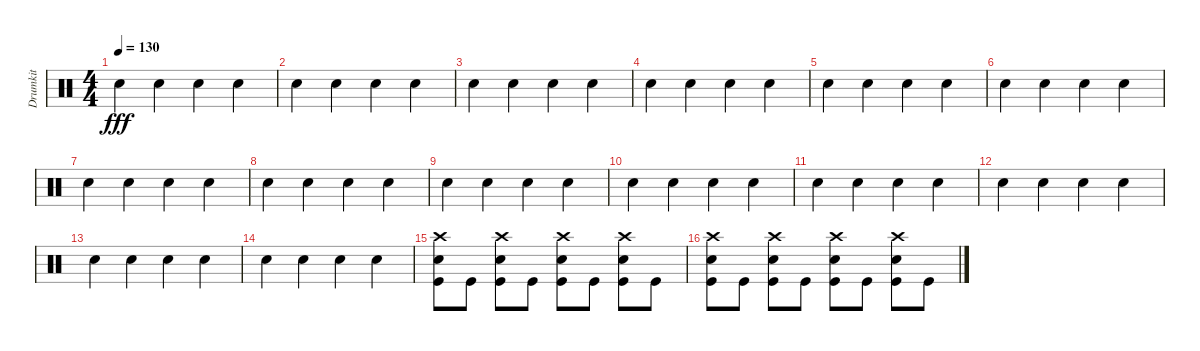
\track ("Drumkit" "Drumkit") {instrument percussion}
\staff {score}
\articulation defaults
\ts (4 4)
\tempo 130
\clef neutral
\ks c "Snare (hit) 2".4{dy fff} "Snare (hit) 2".4 "Snare (hit) 2".4 "Snare (hit) 2".4
|
"Snare (hit) 2".4 "Snare (hit) 2".4 "Snare (hit) 2".4 "Snare (hit) 2".4 |
"Snare (hit) 2".4 "Snare (hit) 2".4 "Snare (hit) 2".4 "Snare (hit) 2".4 |
"Snare (hit) 2".4 "Snare (hit) 2".4 "Snare (hit) 2".4 "Snare (hit) 2".4 |
"Snare (hit) 2".4 "Snare (hit) 2".4 "Snare (hit) 2".4 "Snare (hit) 2".4 |
"Snare (hit) 2".4 "Snare (hit) 2".4 "Snare (hit) 2".4 "Snare (hit) 2".4 |
"Snare (hit) 2".4 "Snare (hit) 2".4 "Snare (hit) 2".4 "Snare (hit) 2".4 |
"Snare (hit) 2".4 "Snare (hit) 2".4 "Snare (hit) 2".4 "Snare (hit) 2".4 |
"Snare (hit) 2".4 "Snare (hit) 2".4 "Snare (hit) 2".4 "Snare (hit) 2".4 |
"Snare (hit) 2".4 "Snare (hit) 2".4 "Snare (hit) 2".4 "Snare (hit) 2".4 |
"Snare (hit) 2".4 "Snare (hit) 2".4 "Snare (hit) 2".4 "Snare (hit) 2".4 |
"Snare (hit) 2".4 "Snare (hit) 2".4 "Snare (hit) 2".4 "Snare (hit) 2".4 |
"Snare (hit) 2".4 "Snare (hit) 2".4 "Snare (hit) 2".4 "Snare (hit) 2".4 |
"Snare (hit) 2".4 "Snare (hit) 2".4 "Snare (hit) 2".4 "Snare (hit) 2".4 |
("Kick (hit)" "Snare (hit) 2" "Crash high (hit)").8 "Kick (hit)".8 ("Kick (hit)" "Snare (hit) 2" "Crash high (hit)").8 "Kick (hit)".8 ("Kick (hit)" "Snare (hit) 2" "Crash high (hit)").8 "Kick (hit)".8 ("Kick (hit)" "Snare (hit) 2" "Crash high (hit)").8 "Kick (hit)".8 |
("Kick (hit)" "Snare (hit) 2" "Crash high (hit)").8 "Kick (hit)".8 ("Kick (hit)" "Snare (hit) 2" "Crash high (hit)").8 "Kick (hit)".8 ("Kick (hit)" "Snare (hit) 2" "Crash high (hit)").8 "Kick (hit)".8 ("Kick (hit)" "Snare (hit) 2" "Crash high (hit)").8 "Kick (hit)".8
